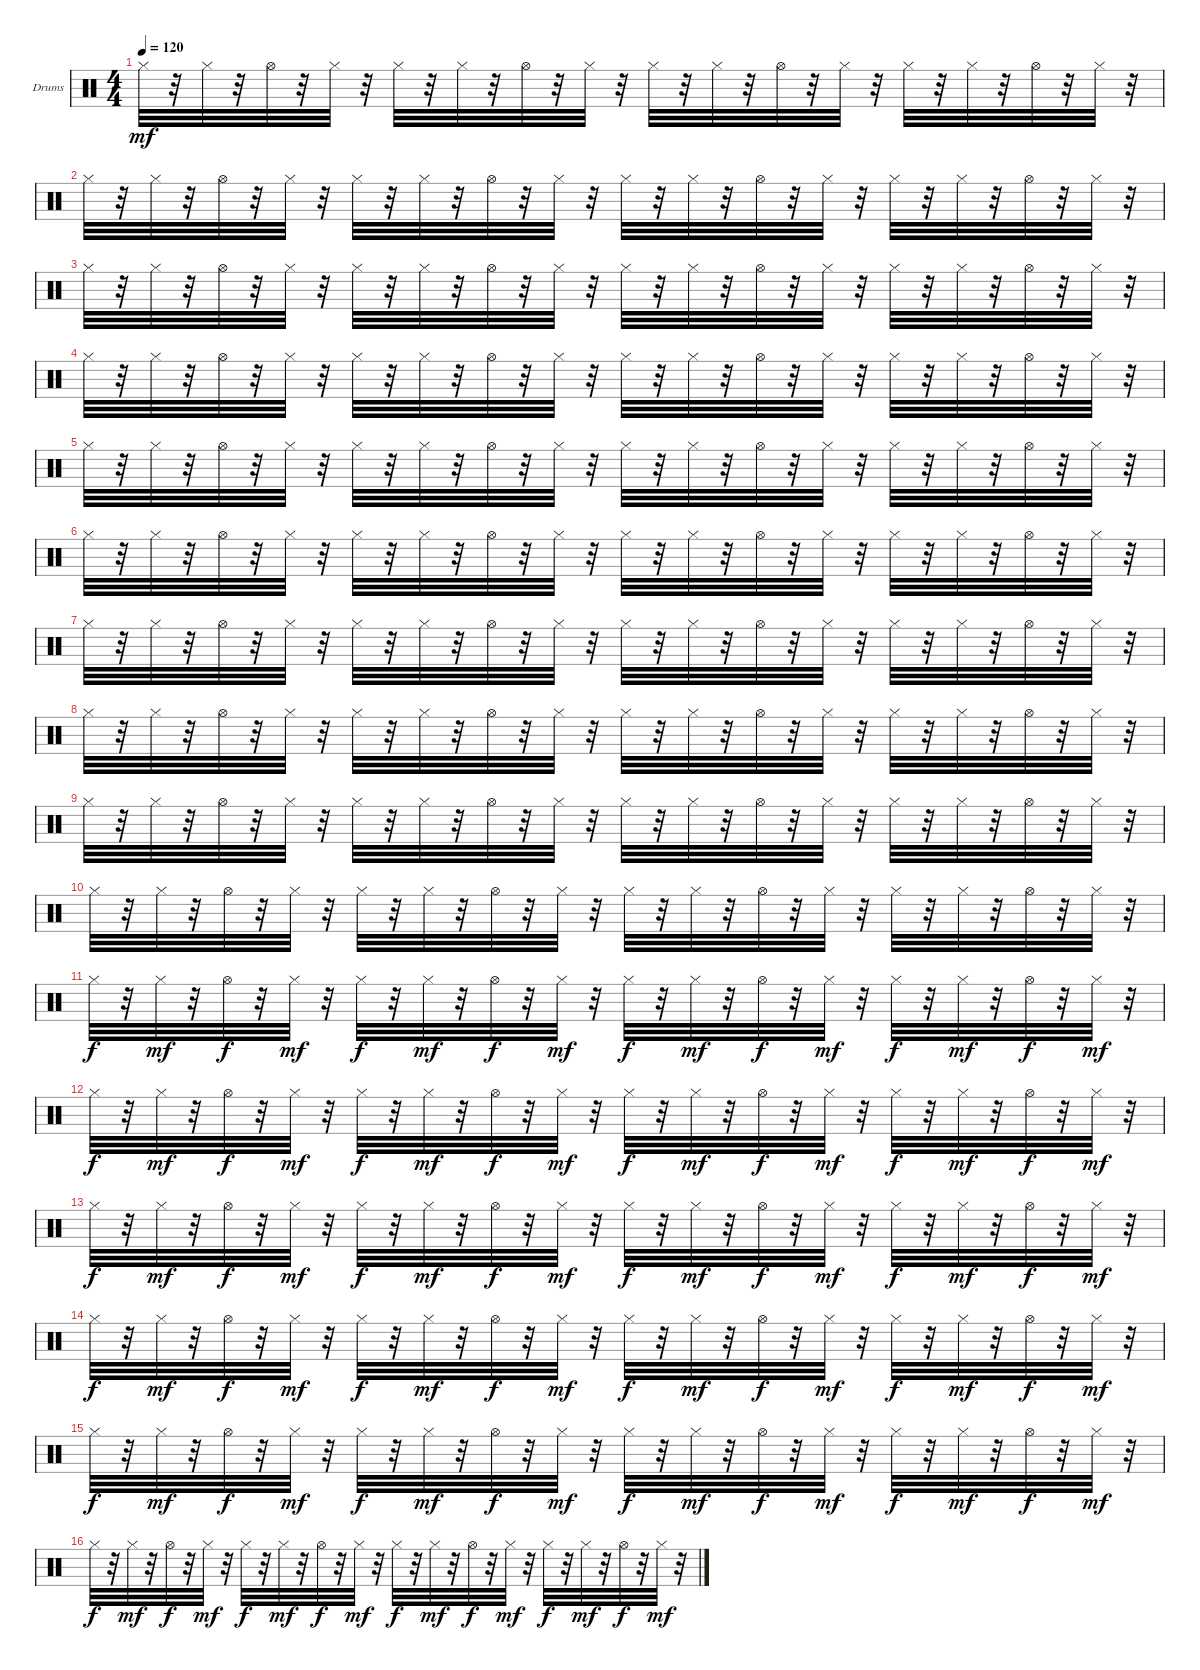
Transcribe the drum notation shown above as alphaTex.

\defaultSystemsLayout 4
\bracketExtendMode nobrackets
\firstSystemTrackNameOrientation horizontal
\otherSystemsTrackNameOrientation horizontal
\track ("Drumkit" "Drums") {instrument percussion}
\staff {score}
\articulation defaults
\ts (4 4)
\tempo 120
\clef neutral
\ks c "Hi-Hat (closed)".32{dy mf}
r.32 "Hi-Hat (closed)".32 r.32 "Hi-Hat (open)".32 r.32 "Hi-Hat (closed)".32 r.32 "Hi-Hat (closed)".32 r.32 "Hi-Hat (closed)".32 r.32 "Hi-Hat (open)".32 r.32 "Hi-Hat (closed)".32 r.32 "Hi-Hat (closed)".32 r.32 "Hi-Hat (closed)".32 r.32 "Hi-Hat (open)".32 r.32 "Hi-Hat (closed)".32 r.32 "Hi-Hat (closed)".32 r.32 "Hi-Hat (closed)".32 r.32 "Hi-Hat (open)".32 r.32 "Hi-Hat (closed)".32 r.32 |
"Hi-Hat (closed)".32 r.32 "Hi-Hat (closed)".32 r.32 "Hi-Hat (open)".32 r.32 "Hi-Hat (closed)".32 r.32 "Hi-Hat (closed)".32 r.32 "Hi-Hat (closed)".32 r.32 "Hi-Hat (open)".32 r.32 "Hi-Hat (closed)".32 r.32 "Hi-Hat (closed)".32 r.32 "Hi-Hat (closed)".32 r.32 "Hi-Hat (open)".32 r.32 "Hi-Hat (closed)".32 r.32 "Hi-Hat (closed)".32 r.32 "Hi-Hat (closed)".32 r.32 "Hi-Hat (open)".32 r.32 "Hi-Hat (closed)".32 r.32 |
"Hi-Hat (closed)".32 r.32 "Hi-Hat (closed)".32 r.32 "Hi-Hat (open)".32 r.32 "Hi-Hat (closed)".32 r.32 "Hi-Hat (closed)".32 r.32 "Hi-Hat (closed)".32 r.32 "Hi-Hat (open)".32 r.32 "Hi-Hat (closed)".32 r.32 "Hi-Hat (closed)".32 r.32 "Hi-Hat (closed)".32 r.32 "Hi-Hat (open)".32 r.32 "Hi-Hat (closed)".32 r.32 "Hi-Hat (closed)".32 r.32 "Hi-Hat (closed)".32 r.32 "Hi-Hat (open)".32 r.32 "Hi-Hat (closed)".32 r.32 |
"Hi-Hat (closed)".32 r.32 "Hi-Hat (closed)".32 r.32 "Hi-Hat (open)".32 r.32 "Hi-Hat (closed)".32 r.32 "Hi-Hat (closed)".32 r.32 "Hi-Hat (closed)".32 r.32 "Hi-Hat (open)".32 r.32 "Hi-Hat (closed)".32 r.32 "Hi-Hat (closed)".32 r.32 "Hi-Hat (closed)".32 r.32 "Hi-Hat (open)".32 r.32 "Hi-Hat (closed)".32 r.32 "Hi-Hat (closed)".32 r.32 "Hi-Hat (closed)".32 r.32 "Hi-Hat (open)".32 r.32 "Hi-Hat (closed)".32 r.32 |
"Hi-Hat (closed)".32 r.32 "Hi-Hat (closed)".32 r.32 "Hi-Hat (open)".32 r.32 "Hi-Hat (closed)".32 r.32 "Hi-Hat (closed)".32 r.32 "Hi-Hat (closed)".32 r.32 "Hi-Hat (open)".32 r.32 "Hi-Hat (closed)".32 r.32 "Hi-Hat (closed)".32 r.32 "Hi-Hat (closed)".32 r.32 "Hi-Hat (open)".32 r.32 "Hi-Hat (closed)".32 r.32 "Hi-Hat (closed)".32 r.32 "Hi-Hat (closed)".32 r.32 "Hi-Hat (open)".32 r.32 "Hi-Hat (closed)".32 r.32 |
"Hi-Hat (closed)".32 r.32 "Hi-Hat (closed)".32 r.32 "Hi-Hat (open)".32 r.32 "Hi-Hat (closed)".32 r.32 "Hi-Hat (closed)".32 r.32 "Hi-Hat (closed)".32 r.32 "Hi-Hat (open)".32 r.32 "Hi-Hat (closed)".32 r.32 "Hi-Hat (closed)".32 r.32 "Hi-Hat (closed)".32 r.32 "Hi-Hat (open)".32 r.32 "Hi-Hat (closed)".32 r.32 "Hi-Hat (closed)".32 r.32 "Hi-Hat (closed)".32 r.32 "Hi-Hat (open)".32 r.32 "Hi-Hat (closed)".32 r.32 |
"Hi-Hat (closed)".32 r.32 "Hi-Hat (closed)".32 r.32 "Hi-Hat (open)".32 r.32 "Hi-Hat (closed)".32 r.32 "Hi-Hat (closed)".32 r.32 "Hi-Hat (closed)".32 r.32 "Hi-Hat (open)".32 r.32 "Hi-Hat (closed)".32 r.32 "Hi-Hat (closed)".32 r.32 "Hi-Hat (closed)".32 r.32 "Hi-Hat (open)".32 r.32 "Hi-Hat (closed)".32 r.32 "Hi-Hat (closed)".32 r.32 "Hi-Hat (closed)".32 r.32 "Hi-Hat (open)".32 r.32 "Hi-Hat (closed)".32 r.32 |
"Hi-Hat (closed)".32 r.32 "Hi-Hat (closed)".32 r.32 "Hi-Hat (open)".32 r.32 "Hi-Hat (closed)".32 r.32 "Hi-Hat (closed)".32 r.32 "Hi-Hat (closed)".32 r.32 "Hi-Hat (open)".32 r.32 "Hi-Hat (closed)".32 r.32 "Hi-Hat (closed)".32 r.32 "Hi-Hat (closed)".32 r.32 "Hi-Hat (open)".32 r.32 "Hi-Hat (closed)".32 r.32 "Hi-Hat (closed)".32 r.32 "Hi-Hat (closed)".32 r.32 "Hi-Hat (open)".32 r.32 "Hi-Hat (closed)".32 r.32 |
"Hi-Hat (closed)".32 r.32 "Hi-Hat (closed)".32 r.32 "Hi-Hat (open)".32 r.32 "Hi-Hat (closed)".32 r.32 "Hi-Hat (closed)".32 r.32 "Hi-Hat (closed)".32 r.32 "Hi-Hat (open)".32 r.32 "Hi-Hat (closed)".32 r.32 "Hi-Hat (closed)".32 r.32 "Hi-Hat (closed)".32 r.32 "Hi-Hat (open)".32 r.32 "Hi-Hat (closed)".32 r.32 "Hi-Hat (closed)".32 r.32 "Hi-Hat (closed)".32 r.32 "Hi-Hat (open)".32 r.32 "Hi-Hat (closed)".32 r.32 |
"Hi-Hat (closed)".32 r.32 "Hi-Hat (closed)".32 r.32 "Hi-Hat (open)".32 r.32 "Hi-Hat (closed)".32 r.32 "Hi-Hat (closed)".32 r.32 "Hi-Hat (closed)".32 r.32 "Hi-Hat (open)".32 r.32 "Hi-Hat (closed)".32 r.32 "Hi-Hat (closed)".32 r.32 "Hi-Hat (closed)".32 r.32 "Hi-Hat (open)".32 r.32 "Hi-Hat (closed)".32 r.32 "Hi-Hat (closed)".32 r.32 "Hi-Hat (closed)".32 r.32 "Hi-Hat (open)".32 r.32 "Hi-Hat (closed)".32 r.32 |
"Hi-Hat (closed)".32{dy f} r.32 "Hi-Hat (closed)".32{dy mf} r.32 "Hi-Hat (open)".32{dy f} r.32 "Hi-Hat (closed)".32{dy mf} r.32 "Hi-Hat (closed)".32{dy f} r.32 "Hi-Hat (closed)".32{dy mf} r.32 "Hi-Hat (open)".32{dy f} r.32 "Hi-Hat (closed)".32{dy mf} r.32 "Hi-Hat (closed)".32{dy f} r.32 "Hi-Hat (closed)".32{dy mf} r.32 "Hi-Hat (open)".32{dy f} r.32 "Hi-Hat (closed)".32{dy mf} r.32 "Hi-Hat (closed)".32{dy f} r.32 "Hi-Hat (closed)".32{dy mf} r.32 "Hi-Hat (open)".32{dy f} r.32 "Hi-Hat (closed)".32{dy mf} r.32 |
"Hi-Hat (closed)".32{dy f} r.32 "Hi-Hat (closed)".32{dy mf} r.32 "Hi-Hat (open)".32{dy f} r.32 "Hi-Hat (closed)".32{dy mf} r.32 "Hi-Hat (closed)".32{dy f} r.32 "Hi-Hat (closed)".32{dy mf} r.32 "Hi-Hat (open)".32{dy f} r.32 "Hi-Hat (closed)".32{dy mf} r.32 "Hi-Hat (closed)".32{dy f} r.32 "Hi-Hat (closed)".32{dy mf} r.32 "Hi-Hat (open)".32{dy f} r.32 "Hi-Hat (closed)".32{dy mf} r.32 "Hi-Hat (closed)".32{dy f} r.32 "Hi-Hat (closed)".32{dy mf} r.32 "Hi-Hat (open)".32{dy f} r.32 "Hi-Hat (closed)".32{dy mf} r.32 |
"Hi-Hat (closed)".32{dy f} r.32 "Hi-Hat (closed)".32{dy mf} r.32 "Hi-Hat (open)".32{dy f} r.32 "Hi-Hat (closed)".32{dy mf} r.32 "Hi-Hat (closed)".32{dy f} r.32 "Hi-Hat (closed)".32{dy mf} r.32 "Hi-Hat (open)".32{dy f} r.32 "Hi-Hat (closed)".32{dy mf} r.32 "Hi-Hat (closed)".32{dy f} r.32 "Hi-Hat (closed)".32{dy mf} r.32 "Hi-Hat (open)".32{dy f} r.32 "Hi-Hat (closed)".32{dy mf} r.32 "Hi-Hat (closed)".32{dy f} r.32 "Hi-Hat (closed)".32{dy mf} r.32 "Hi-Hat (open)".32{dy f} r.32 "Hi-Hat (closed)".32{dy mf} r.32 |
"Hi-Hat (closed)".32{dy f} r.32 "Hi-Hat (closed)".32{dy mf} r.32 "Hi-Hat (open)".32{dy f} r.32 "Hi-Hat (closed)".32{dy mf} r.32 "Hi-Hat (closed)".32{dy f} r.32 "Hi-Hat (closed)".32{dy mf} r.32 "Hi-Hat (open)".32{dy f} r.32 "Hi-Hat (closed)".32{dy mf} r.32 "Hi-Hat (closed)".32{dy f} r.32 "Hi-Hat (closed)".32{dy mf} r.32 "Hi-Hat (open)".32{dy f} r.32 "Hi-Hat (closed)".32{dy mf} r.32 "Hi-Hat (closed)".32{dy f} r.32 "Hi-Hat (closed)".32{dy mf} r.32 "Hi-Hat (open)".32{dy f} r.32 "Hi-Hat (closed)".32{dy mf} r.32 |
"Hi-Hat (closed)".32{dy f} r.32 "Hi-Hat (closed)".32{dy mf} r.32 "Hi-Hat (open)".32{dy f} r.32 "Hi-Hat (closed)".32{dy mf} r.32 "Hi-Hat (closed)".32{dy f} r.32 "Hi-Hat (closed)".32{dy mf} r.32 "Hi-Hat (open)".32{dy f} r.32 "Hi-Hat (closed)".32{dy mf} r.32 "Hi-Hat (closed)".32{dy f} r.32 "Hi-Hat (closed)".32{dy mf} r.32 "Hi-Hat (open)".32{dy f} r.32 "Hi-Hat (closed)".32{dy mf} r.32 "Hi-Hat (closed)".32{dy f} r.32 "Hi-Hat (closed)".32{dy mf} r.32 "Hi-Hat (open)".32{dy f} r.32 "Hi-Hat (closed)".32{dy mf} r.32 |
"Hi-Hat (closed)".32{dy f} r.32 "Hi-Hat (closed)".32{dy mf} r.32 "Hi-Hat (open)".32{dy f} r.32 "Hi-Hat (closed)".32{dy mf} r.32 "Hi-Hat (closed)".32{dy f} r.32 "Hi-Hat (closed)".32{dy mf} r.32 "Hi-Hat (open)".32{dy f} r.32 "Hi-Hat (closed)".32{dy mf} r.32 "Hi-Hat (closed)".32{dy f} r.32 "Hi-Hat (closed)".32{dy mf} r.32 "Hi-Hat (open)".32{dy f} r.32 "Hi-Hat (closed)".32{dy mf} r.32 "Hi-Hat (closed)".32{dy f} r.32 "Hi-Hat (closed)".32{dy mf} r.32 "Hi-Hat (open)".32{dy f} r.32 "Hi-Hat (closed)".32{dy mf} r.32
